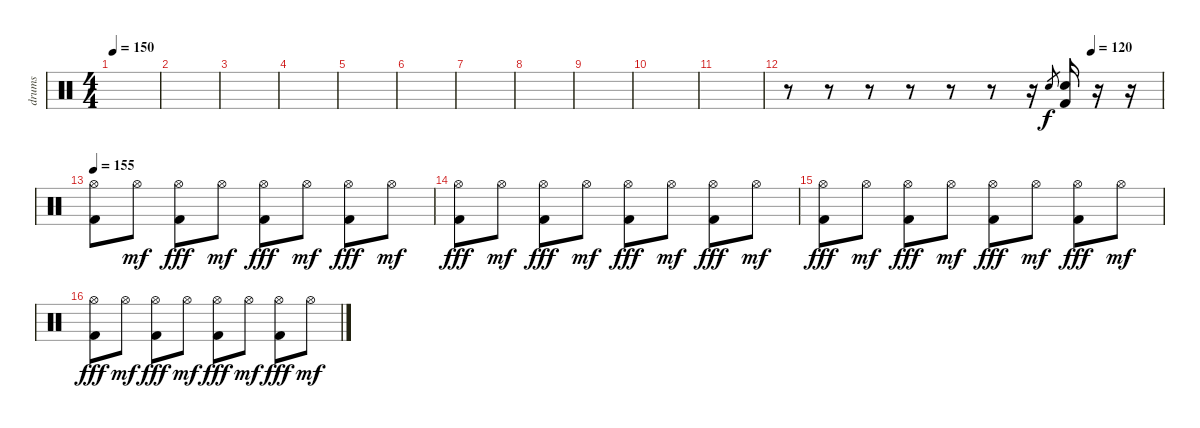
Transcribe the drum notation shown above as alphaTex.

\track ("drums" "drums") {instrument percussion}
\staff {score}
\articulation defaults
\ts (4 4)
\tempo 150
\clef neutral
\ks c
|
|
|
|
|
|
|
|
|
|
|
\tempo (120 0.8125)
r.8 r.8 r.8 r.8 r.8 r.8 r.16 "Snare (hit) 2".8{gr} ("Snare (hit) 2" "Kick (hit) 2").16 r.16 r.16 |
\tempo 155
("Hi-Hat (open)" "Kick (hit) 2").8 "Hi-Hat (open)".8{dy mf} ("Hi-Hat (open)" "Kick (hit) 2").8{dy fff} "Hi-Hat (open)".8{dy mf} ("Hi-Hat (open)" "Kick (hit) 2").8{dy fff} "Hi-Hat (open)".8{dy mf} ("Hi-Hat (open)" "Kick (hit) 2").8{dy fff} "Hi-Hat (open)".8{dy mf} |
("Hi-Hat (open)" "Kick (hit) 2").8{dy fff} "Hi-Hat (open)".8{dy mf} ("Hi-Hat (open)" "Kick (hit) 2").8{dy fff} "Hi-Hat (open)".8{dy mf} ("Hi-Hat (open)" "Kick (hit) 2").8{dy fff} "Hi-Hat (open)".8{dy mf} ("Hi-Hat (open)" "Kick (hit) 2").8{dy fff} "Hi-Hat (open)".8{dy mf} |
("Hi-Hat (open)" "Kick (hit) 2").8{dy fff} "Hi-Hat (open)".8{dy mf} ("Hi-Hat (open)" "Kick (hit) 2").8{dy fff} "Hi-Hat (open)".8{dy mf} ("Hi-Hat (open)" "Kick (hit) 2").8{dy fff} "Hi-Hat (open)".8{dy mf} ("Hi-Hat (open)" "Kick (hit) 2").8{dy fff} "Hi-Hat (open)".8{dy mf} |
("Hi-Hat (open)" "Kick (hit) 2").8{dy fff} "Hi-Hat (open)".8{dy mf} ("Hi-Hat (open)" "Kick (hit) 2").8{dy fff} "Hi-Hat (open)".8{dy mf} ("Hi-Hat (open)" "Kick (hit) 2").8{dy fff} "Hi-Hat (open)".8{dy mf} ("Hi-Hat (open)" "Kick (hit) 2").8{dy fff} "Hi-Hat (open)".8{dy mf}
